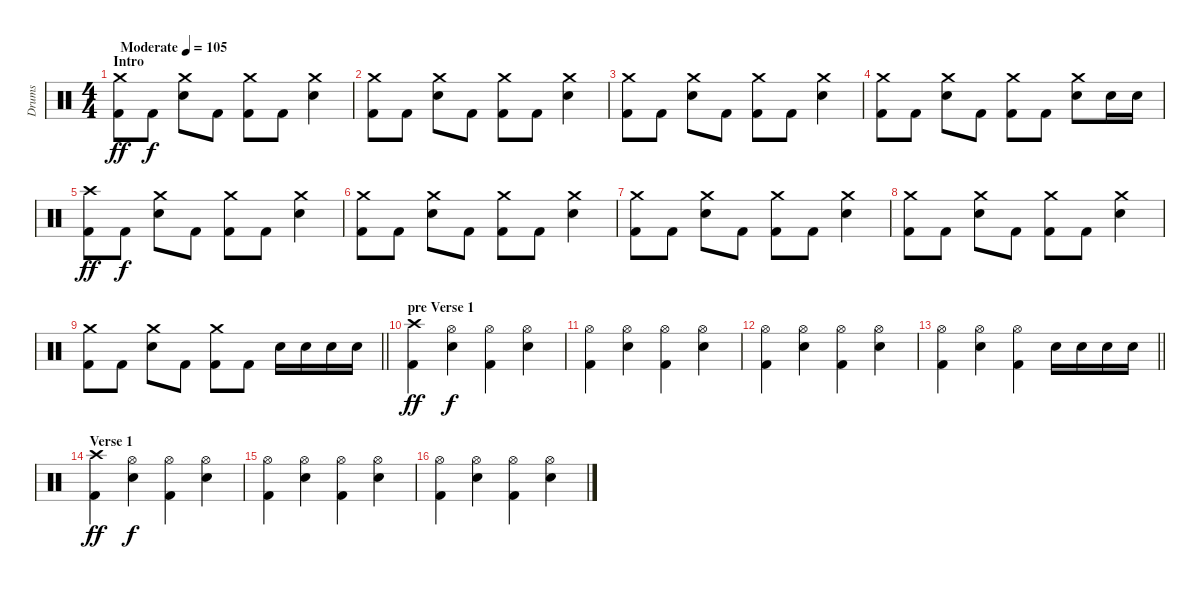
\track ("Drums" "Drums") {instrument percussion}
\staff {score}
\articulation defaults
\ts (4 4)
\section ("" "Intro")
\tempo (105 "Moderate")
\clef neutral
\ks c
("Crash medium (hit)" "Kick (hit) 2").8{dy ff} "Kick (hit) 2".8{dy f} ("Crash medium (hit)" "Snare (hit) 2").8 "Kick (hit) 2".8 ("Crash medium (hit)" "Kick (hit) 2").8 "Kick (hit) 2".8 ("Crash medium (hit)" "Snare (hit) 2").4 |
("Crash medium (hit)" "Kick (hit) 2").8 "Kick (hit) 2".8 ("Crash medium (hit)" "Snare (hit) 2").8 "Kick (hit) 2".8 ("Crash medium (hit)" "Kick (hit) 2").8 "Kick (hit) 2".8 ("Crash medium (hit)" "Snare (hit) 2").4 |
("Crash medium (hit)" "Kick (hit) 2").8 "Kick (hit) 2".8 ("Crash medium (hit)" "Snare (hit) 2").8 "Kick (hit) 2".8 ("Crash medium (hit)" "Kick (hit) 2").8 "Kick (hit) 2".8 ("Crash medium (hit)" "Snare (hit) 2").4 |
("Crash medium (hit)" "Kick (hit) 2").8 "Kick (hit) 2".8 ("Crash medium (hit)" "Snare (hit) 2").8 "Kick (hit) 2".8 ("Crash medium (hit)" "Kick (hit) 2").8 "Kick (hit) 2".8 ("Crash medium (hit)" "Snare (hit) 2").8 "Snare (hit) 2".16 "Snare (hit) 2".16 |
("Crash high (hit)" "Kick (hit) 2").8{dy ff} "Kick (hit) 2".8{dy f} ("Crash medium (hit)" "Snare (hit) 2").8 "Kick (hit) 2".8 ("Crash medium (hit)" "Kick (hit) 2").8 "Kick (hit) 2".8 ("Crash medium (hit)" "Snare (hit) 2").4 |
("Crash medium (hit)" "Kick (hit) 2").8 "Kick (hit) 2".8 ("Crash medium (hit)" "Snare (hit) 2").8 "Kick (hit) 2".8 ("Crash medium (hit)" "Kick (hit) 2").8 "Kick (hit) 2".8 ("Crash medium (hit)" "Snare (hit) 2").4 |
("Crash medium (hit)" "Kick (hit) 2").8 "Kick (hit) 2".8 ("Crash medium (hit)" "Snare (hit) 2").8 "Kick (hit) 2".8 ("Crash medium (hit)" "Kick (hit) 2").8 "Kick (hit) 2".8 ("Crash medium (hit)" "Snare (hit) 2").4 |
("Crash medium (hit)" "Kick (hit) 2").8 "Kick (hit) 2".8 ("Crash medium (hit)" "Snare (hit) 2").8 "Kick (hit) 2".8 ("Crash medium (hit)" "Kick (hit) 2").8 "Kick (hit) 2".8 ("Crash medium (hit)" "Snare (hit) 2").4 |
\barLineRight lightlight
("Crash medium (hit)" "Kick (hit) 2").8 "Kick (hit) 2".8 ("Crash medium (hit)" "Snare (hit) 2").8 "Kick (hit) 2".8 ("Crash medium (hit)" "Kick (hit) 2").8 "Kick (hit) 2".8 "Snare (hit) 2".16 "Snare (hit) 2".16 "Snare (hit) 2".16 "Snare (hit) 2".16 |
\section ("" "pre Verse 1")
("Crash high (hit)" "Kick (hit) 2").4{dy ff} ("Hi-Hat (open)" "Snare (hit) 2").4{dy f} ("Hi-Hat (open)" "Kick (hit) 2").4 ("Hi-Hat (open)" "Snare (hit) 2").4 |
("Hi-Hat (open)" "Kick (hit) 2").4 ("Hi-Hat (open)" "Snare (hit) 2").4 ("Hi-Hat (open)" "Kick (hit) 2").4 ("Hi-Hat (open)" "Snare (hit) 2").4 |
("Hi-Hat (open)" "Kick (hit) 2").4 ("Hi-Hat (open)" "Snare (hit) 2").4 ("Hi-Hat (open)" "Kick (hit) 2").4 ("Hi-Hat (open)" "Snare (hit) 2").4 |
\barLineRight lightlight
("Hi-Hat (open)" "Kick (hit) 2").4 ("Hi-Hat (open)" "Snare (hit) 2").4 ("Hi-Hat (open)" "Kick (hit) 2").4 "Snare (hit) 2".16 "Snare (hit) 2".16 "Snare (hit) 2".16 "Snare (hit) 2".16 |
\section ("" "Verse 1")
("Crash high (hit)" "Kick (hit) 2").4{dy ff} ("Hi-Hat (open)" "Snare (hit) 2").4{dy f} ("Hi-Hat (open)" "Kick (hit) 2").4 ("Hi-Hat (open)" "Snare (hit) 2").4 |
("Hi-Hat (open)" "Kick (hit) 2").4 ("Hi-Hat (open)" "Snare (hit) 2").4 ("Hi-Hat (open)" "Kick (hit) 2").4 ("Hi-Hat (open)" "Snare (hit) 2").4 |
("Hi-Hat (open)" "Kick (hit) 2").4 ("Hi-Hat (open)" "Snare (hit) 2").4 ("Hi-Hat (open)" "Kick (hit) 2").4 ("Hi-Hat (open)" "Snare (hit) 2").4
